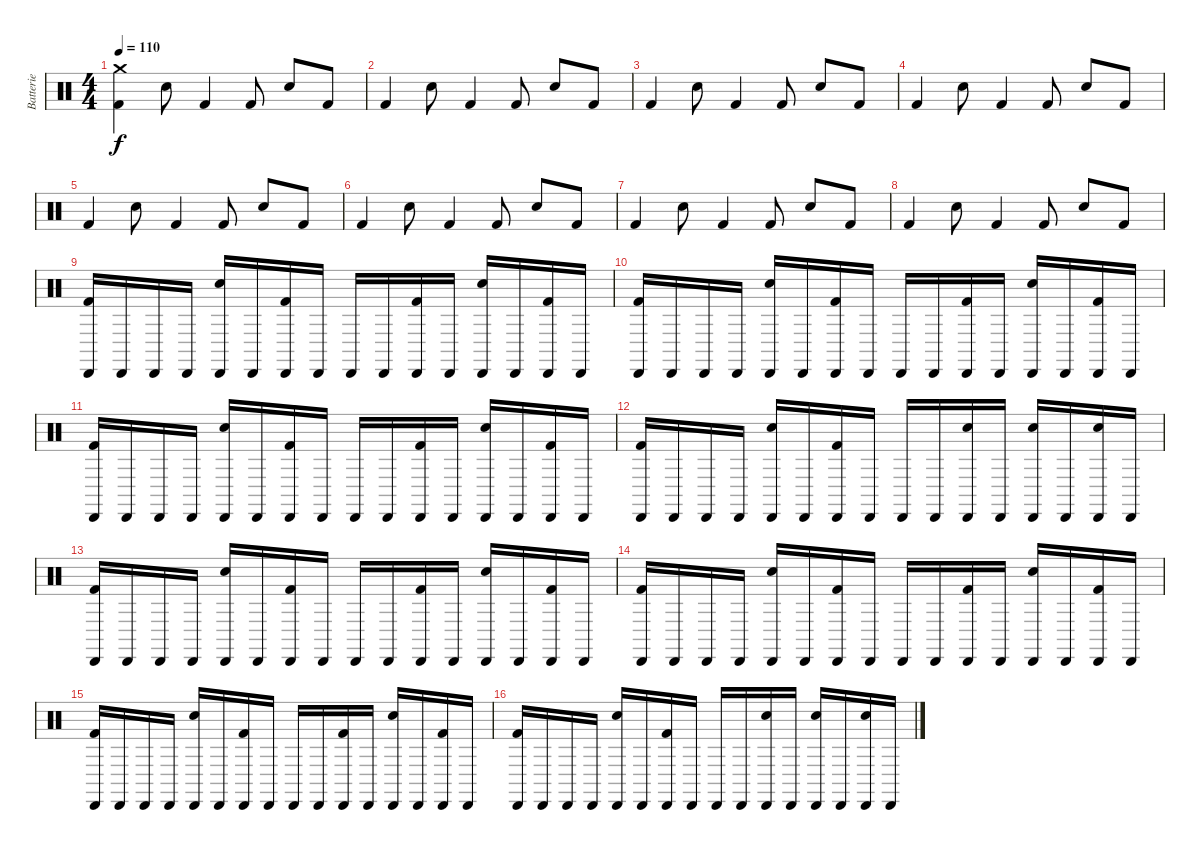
\track ("Batterie" "Batterie") {instrument percussion}
\staff {score}
\articulation defaults
\ts (4 4)
\tempo 110
\clef neutral
\ks c
("Crash medium (hit)" "Kick (hit) 2").4{dy f} "Snare (hit) 2".8 "Kick (hit) 2".4 "Kick (hit) 2".8 "Snare (hit) 2".8 "Kick (hit) 2".8 |
"Kick (hit) 2".4 "Snare (hit) 2".8 "Kick (hit) 2".4 "Kick (hit) 2".8 "Snare (hit) 2".8 "Kick (hit) 2".8 |
"Kick (hit) 2".4 "Snare (hit) 2".8 "Kick (hit) 2".4 "Kick (hit) 2".8 "Snare (hit) 2".8 "Kick (hit) 2".8 |
"Kick (hit) 2".4 "Snare (hit) 2".8 "Kick (hit) 2".4 "Kick (hit) 2".8 "Snare (hit) 2".8 "Kick (hit) 2".8 |
"Kick (hit) 2".4 "Snare (hit) 2".8 "Kick (hit) 2".4 "Kick (hit) 2".8 "Snare (hit) 2".8 "Kick (hit) 2".8 |
"Kick (hit) 2".4 "Snare (hit) 2".8 "Kick (hit) 2".4 "Kick (hit) 2".8 "Snare (hit) 2".8 "Kick (hit) 2".8 |
"Kick (hit) 2".4 "Snare (hit) 2".8 "Kick (hit) 2".4 "Kick (hit) 2".8 "Snare (hit) 2".8 "Kick (hit) 2".8 |
"Kick (hit) 2".4 "Snare (hit) 2".8 "Kick (hit) 2".4 "Kick (hit) 2".8 "Snare (hit) 2".8 "Kick (hit) 2".8 |
("Cabasa (hit)" "Kick (hit) 2").16 "Cabasa (hit)".16 "Cabasa (hit)".16 "Cabasa (hit)".16 ("Cabasa (hit)" "Snare (hit) 2").16 "Cabasa (hit)".16 ("Cabasa (hit)" "Kick (hit) 2").16 "Cabasa (hit)".16 "Cabasa (hit)".16 "Cabasa (hit)".16 ("Cabasa (hit)" "Kick (hit) 2").16 "Cabasa (hit)".16 ("Cabasa (hit)" "Snare (hit) 2").16 "Cabasa (hit)".16 ("Cabasa (hit)" "Kick (hit) 2").16 "Cabasa (hit)".16 |
("Cabasa (hit)" "Kick (hit) 2").16 "Cabasa (hit)".16 "Cabasa (hit)".16 "Cabasa (hit)".16 ("Cabasa (hit)" "Snare (hit) 2").16 "Cabasa (hit)".16 ("Cabasa (hit)" "Kick (hit) 2").16 "Cabasa (hit)".16 "Cabasa (hit)".16 "Cabasa (hit)".16 ("Cabasa (hit)" "Kick (hit) 2").16 "Cabasa (hit)".16 ("Cabasa (hit)" "Snare (hit) 2").16 "Cabasa (hit)".16 ("Cabasa (hit)" "Kick (hit) 2").16 "Cabasa (hit)".16 |
("Cabasa (hit)" "Kick (hit) 2").16 "Cabasa (hit)".16 "Cabasa (hit)".16 "Cabasa (hit)".16 ("Cabasa (hit)" "Snare (hit) 2").16 "Cabasa (hit)".16 ("Cabasa (hit)" "Kick (hit) 2").16 "Cabasa (hit)".16 "Cabasa (hit)".16 "Cabasa (hit)".16 ("Cabasa (hit)" "Kick (hit) 2").16 "Cabasa (hit)".16 ("Cabasa (hit)" "Snare (hit) 2").16 "Cabasa (hit)".16 ("Cabasa (hit)" "Kick (hit) 2").16 "Cabasa (hit)".16 |
("Cabasa (hit)" "Kick (hit) 2").16 "Cabasa (hit)".16 "Cabasa (hit)".16 "Cabasa (hit)".16 ("Cabasa (hit)" "Snare (hit) 2").16 "Cabasa (hit)".16 ("Cabasa (hit)" "Kick (hit) 2").16 "Cabasa (hit)".16 "Cabasa (hit)".16 "Cabasa (hit)".16 ("Cabasa (hit)" "Snare (hit) 2").16 "Cabasa (hit)".16 ("Cabasa (hit)" "Snare (hit) 2").16 "Cabasa (hit)".16 ("Cabasa (hit)" "Snare (hit) 2").16 "Cabasa (hit)".16 |
("Cabasa (hit)" "Kick (hit) 2").16 "Cabasa (hit)".16 "Cabasa (hit)".16 "Cabasa (hit)".16 ("Cabasa (hit)" "Snare (hit) 2").16 "Cabasa (hit)".16 ("Cabasa (hit)" "Kick (hit) 2").16 "Cabasa (hit)".16 "Cabasa (hit)".16 "Cabasa (hit)".16 ("Cabasa (hit)" "Kick (hit) 2").16 "Cabasa (hit)".16 ("Cabasa (hit)" "Snare (hit) 2").16 "Cabasa (hit)".16 ("Cabasa (hit)" "Kick (hit) 2").16 "Cabasa (hit)".16 |
("Cabasa (hit)" "Kick (hit) 2").16 "Cabasa (hit)".16 "Cabasa (hit)".16 "Cabasa (hit)".16 ("Cabasa (hit)" "Snare (hit) 2").16 "Cabasa (hit)".16 ("Cabasa (hit)" "Kick (hit) 2").16 "Cabasa (hit)".16 "Cabasa (hit)".16 "Cabasa (hit)".16 ("Cabasa (hit)" "Kick (hit) 2").16 "Cabasa (hit)".16 ("Cabasa (hit)" "Snare (hit) 2").16 "Cabasa (hit)".16 ("Cabasa (hit)" "Kick (hit) 2").16 "Cabasa (hit)".16 |
("Cabasa (hit)" "Kick (hit) 2").16 "Cabasa (hit)".16 "Cabasa (hit)".16 "Cabasa (hit)".16 ("Cabasa (hit)" "Snare (hit) 2").16 "Cabasa (hit)".16 ("Cabasa (hit)" "Kick (hit) 2").16 "Cabasa (hit)".16 "Cabasa (hit)".16 "Cabasa (hit)".16 ("Cabasa (hit)" "Kick (hit) 2").16 "Cabasa (hit)".16 ("Cabasa (hit)" "Snare (hit) 2").16 "Cabasa (hit)".16 ("Cabasa (hit)" "Kick (hit) 2").16 "Cabasa (hit)".16 |
("Cabasa (hit)" "Kick (hit) 2").16 "Cabasa (hit)".16 "Cabasa (hit)".16 "Cabasa (hit)".16 ("Cabasa (hit)" "Snare (hit) 2").16 "Cabasa (hit)".16 ("Cabasa (hit)" "Kick (hit) 2").16 "Cabasa (hit)".16 "Cabasa (hit)".16 "Cabasa (hit)".16 ("Cabasa (hit)" "Snare (hit) 2").16 "Cabasa (hit)".16 ("Cabasa (hit)" "Snare (hit) 2").16 "Cabasa (hit)".16 ("Cabasa (hit)" "Snare (hit) 2").16 "Cabasa (hit)".16
